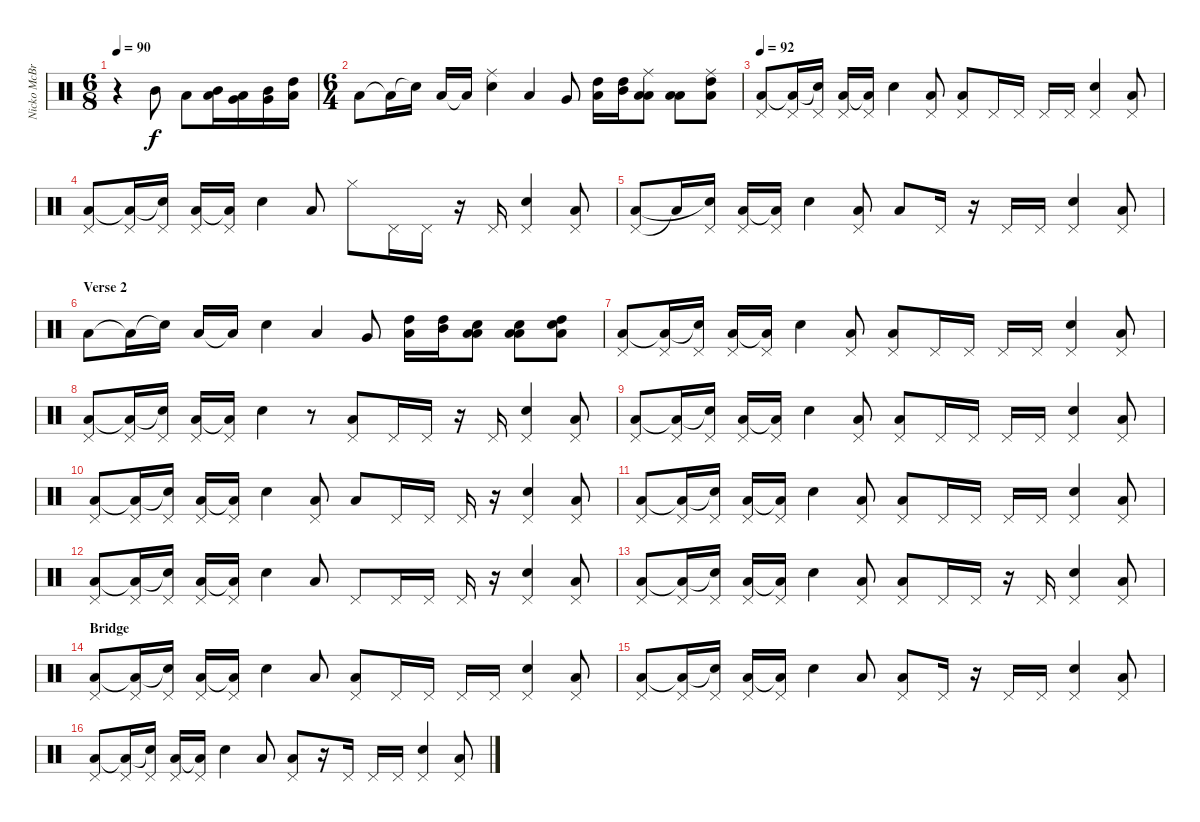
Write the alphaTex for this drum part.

\track ("Nicko McBrain" "Nicko McBr") {instrument percussion}
\staff {score}
\articulation defaults
\ts (6 8)
\tempo 90
\clef neutral
\ks c
r.4{dy f} "Mid Tom (hit)".8 "Low Tom (hit)".8 ("Mid Tom (hit)" "Low Tom (hit)").16 ("Low Tom (hit)" "Very Low Tom (hit)").16 ("Very Low Tom (hit)" "Mid Tom (hit)").16 ("High Tom (hit)" "Low Floor Tom (hit)").16 |
\ts (6 4)
"Low Floor Tom (hit)".8 "Low Floor Tom (hit)"{t}.16 "Electric Snare (hit)"{t}.16 "Low Floor Tom (hit)".16 "Low Floor Tom (hit)"{t}.16 ("Ride (middle)" "Electric Snare (hit)").4 "Low Floor Tom (hit)".4 "Very Low Tom (hit)".8 ("High Tom (hit)" "Low Floor Tom (hit)").16 ("High Tom (hit)" "Mid Tom (hit)").16 ("Low Tom (hit)" "Low Tom (hit)" "Ride (middle)").8 ("Low Floor Tom (hit)" "Low Tom (hit)").8 ("High Tom (hit)" "Low Tom (hit)" "Ride (middle)").8 |
\tempo 92
("Pedal Hi-Hat (hit)" "Low Floor Tom (hit)").8 ("Pedal Hi-Hat (hit)" "Low Floor Tom (hit)"{t}).16 ("Pedal Hi-Hat (hit)" "Electric Snare (hit)"{t}).16 ("Pedal Hi-Hat (hit)" "Low Floor Tom (hit)").16 ("Pedal Hi-Hat (hit)" "Low Floor Tom (hit)"{t}).16 "Electric Snare (hit)".4 ("Pedal Hi-Hat (hit)" "Low Floor Tom (hit)").8 ("Pedal Hi-Hat (hit)" "Low Floor Tom (hit)").8 "Pedal Hi-Hat (hit)".16 "Pedal Hi-Hat (hit)".16 "Pedal Hi-Hat (hit)".16 "Pedal Hi-Hat (hit)".16 ("Pedal Hi-Hat (hit)" "Electric Snare (hit)").4 ("Pedal Hi-Hat (hit)" "Low Floor Tom (hit)").8 |
("Pedal Hi-Hat (hit)" "Low Floor Tom (hit)").8 ("Pedal Hi-Hat (hit)" "Low Floor Tom (hit)"{t}).16 ("Pedal Hi-Hat (hit)" "Electric Snare (hit)"{t}).16 ("Pedal Hi-Hat (hit)" "Low Floor Tom (hit)").16 ("Pedal Hi-Hat (hit)" "Low Floor Tom (hit)"{t}).16 "Electric Snare (hit)".4 "Low Floor Tom (hit)".8 "Hi-Hat (closed)".8 "Pedal Hi-Hat (hit)".16 "Pedal Hi-Hat (hit)".16 r.16 "Pedal Hi-Hat (hit)".16 ("Pedal Hi-Hat (hit)" "Electric Snare (hit)").4 ("Pedal Hi-Hat (hit)" "Low Floor Tom (hit)").8 |
("Pedal Hi-Hat (hit)" "Low Floor Tom (hit)").8 "Low Floor Tom (hit)"{t}.16 ("Pedal Hi-Hat (hit)" "Electric Snare (hit)"{t}).16 ("Pedal Hi-Hat (hit)" "Low Floor Tom (hit)").16 ("Pedal Hi-Hat (hit)" "Low Floor Tom (hit)"{t}).16 "Electric Snare (hit)".4 ("Pedal Hi-Hat (hit)" "Low Floor Tom (hit)").8 "Low Floor Tom (hit)".8 "Pedal Hi-Hat (hit)".16 r.16 "Pedal Hi-Hat (hit)".16 "Pedal Hi-Hat (hit)".16 ("Pedal Hi-Hat (hit)" "Electric Snare (hit)").4 ("Pedal Hi-Hat (hit)" "Low Floor Tom (hit)").8 |
\section ("" "Verse 2")
"Low Floor Tom (hit)".8 "Low Floor Tom (hit)"{t}.16 "Electric Snare (hit)"{t}.16 "Low Floor Tom (hit)".16 "Low Floor Tom (hit)"{t}.16 "Electric Snare (hit)".4 "Low Floor Tom (hit)".4 "Very Low Tom (hit)".8 ("High Tom (hit)" "Low Floor Tom (hit)").16 ("High Tom (hit)" "Mid Tom (hit)").16 ("Low Tom (hit)" "Low Tom (hit)" "Electric Snare (hit)").8 ("Low Floor Tom (hit)" "Low Tom (hit)" "Electric Snare (hit)").8 ("High Tom (hit)" "Low Tom (hit)" "Electric Snare (hit)").8 |
("Pedal Hi-Hat (hit)" "Low Floor Tom (hit)").8 ("Pedal Hi-Hat (hit)" "Low Floor Tom (hit)"{t}).16 ("Pedal Hi-Hat (hit)" "Electric Snare (hit)"{t}).16 ("Pedal Hi-Hat (hit)" "Low Floor Tom (hit)").16 ("Pedal Hi-Hat (hit)" "Low Floor Tom (hit)"{t}).16 "Electric Snare (hit)".4 ("Pedal Hi-Hat (hit)" "Low Floor Tom (hit)").8 ("Pedal Hi-Hat (hit)" "Low Floor Tom (hit)").8 "Pedal Hi-Hat (hit)".16 "Pedal Hi-Hat (hit)".16 "Pedal Hi-Hat (hit)".16 "Pedal Hi-Hat (hit)".16 ("Pedal Hi-Hat (hit)" "Electric Snare (hit)").4 ("Pedal Hi-Hat (hit)" "Low Floor Tom (hit)").8 |
("Pedal Hi-Hat (hit)" "Low Floor Tom (hit)").8 ("Pedal Hi-Hat (hit)" "Low Floor Tom (hit)"{t}).16 ("Pedal Hi-Hat (hit)" "Electric Snare (hit)"{t}).16 ("Pedal Hi-Hat (hit)" "Low Floor Tom (hit)").16 ("Pedal Hi-Hat (hit)" "Low Floor Tom (hit)"{t}).16 "Electric Snare (hit)".4 r.8 ("Pedal Hi-Hat (hit)" "Low Floor Tom (hit)").8 "Pedal Hi-Hat (hit)".16 "Pedal Hi-Hat (hit)".16 r.16 "Pedal Hi-Hat (hit)".16 ("Pedal Hi-Hat (hit)" "Electric Snare (hit)").4 ("Pedal Hi-Hat (hit)" "Low Floor Tom (hit)").8 |
("Pedal Hi-Hat (hit)" "Low Floor Tom (hit)").8 ("Pedal Hi-Hat (hit)" "Low Floor Tom (hit)"{t}).16 ("Pedal Hi-Hat (hit)" "Electric Snare (hit)"{t}).16 ("Pedal Hi-Hat (hit)" "Low Floor Tom (hit)").16 ("Pedal Hi-Hat (hit)" "Low Floor Tom (hit)"{t}).16 "Electric Snare (hit)".4 ("Pedal Hi-Hat (hit)" "Low Floor Tom (hit)").8 ("Pedal Hi-Hat (hit)" "Low Floor Tom (hit)").8 "Pedal Hi-Hat (hit)".16 "Pedal Hi-Hat (hit)".16 "Pedal Hi-Hat (hit)".16 "Pedal Hi-Hat (hit)".16 ("Pedal Hi-Hat (hit)" "Electric Snare (hit)").4 ("Pedal Hi-Hat (hit)" "Low Floor Tom (hit)").8 |
("Pedal Hi-Hat (hit)" "Low Floor Tom (hit)").8 ("Pedal Hi-Hat (hit)" "Low Floor Tom (hit)"{t}).16 ("Pedal Hi-Hat (hit)" "Electric Snare (hit)"{t}).16 ("Pedal Hi-Hat (hit)" "Low Floor Tom (hit)").16 ("Pedal Hi-Hat (hit)" "Low Floor Tom (hit)"{t}).16 "Electric Snare (hit)".4 ("Pedal Hi-Hat (hit)" "Low Floor Tom (hit)").8 "Low Floor Tom (hit)".8 "Pedal Hi-Hat (hit)".16 "Pedal Hi-Hat (hit)".16 "Pedal Hi-Hat (hit)".16 r.16 ("Pedal Hi-Hat (hit)" "Electric Snare (hit)").4 ("Pedal Hi-Hat (hit)" "Low Floor Tom (hit)").8 |
("Pedal Hi-Hat (hit)" "Low Floor Tom (hit)").8 ("Pedal Hi-Hat (hit)" "Low Floor Tom (hit)"{t}).16 ("Pedal Hi-Hat (hit)" "Electric Snare (hit)"{t}).16 ("Pedal Hi-Hat (hit)" "Low Floor Tom (hit)").16 ("Pedal Hi-Hat (hit)" "Low Floor Tom (hit)"{t}).16 "Electric Snare (hit)".4 ("Pedal Hi-Hat (hit)" "Low Floor Tom (hit)").8 ("Pedal Hi-Hat (hit)" "Low Floor Tom (hit)").8 "Pedal Hi-Hat (hit)".16 "Pedal Hi-Hat (hit)".16 "Pedal Hi-Hat (hit)".16 "Pedal Hi-Hat (hit)".16 ("Pedal Hi-Hat (hit)" "Electric Snare (hit)").4 ("Pedal Hi-Hat (hit)" "Low Floor Tom (hit)").8 |
("Pedal Hi-Hat (hit)" "Low Floor Tom (hit)").8 ("Pedal Hi-Hat (hit)" "Low Floor Tom (hit)"{t}).16 ("Pedal Hi-Hat (hit)" "Electric Snare (hit)"{t}).16 ("Pedal Hi-Hat (hit)" "Low Floor Tom (hit)").16 ("Pedal Hi-Hat (hit)" "Low Floor Tom (hit)"{t}).16 "Electric Snare (hit)".4 "Low Floor Tom (hit)".8 "Pedal Hi-Hat (hit)".8 "Pedal Hi-Hat (hit)".16 "Pedal Hi-Hat (hit)".16 "Pedal Hi-Hat (hit)".16 r.16 ("Pedal Hi-Hat (hit)" "Electric Snare (hit)").4 ("Pedal Hi-Hat (hit)" "Low Floor Tom (hit)").8 |
("Pedal Hi-Hat (hit)" "Low Floor Tom (hit)").8 ("Pedal Hi-Hat (hit)" "Low Floor Tom (hit)"{t}).16 ("Pedal Hi-Hat (hit)" "Electric Snare (hit)"{t}).16 ("Pedal Hi-Hat (hit)" "Low Floor Tom (hit)").16 ("Pedal Hi-Hat (hit)" "Low Floor Tom (hit)"{t}).16 "Electric Snare (hit)".4 ("Pedal Hi-Hat (hit)" "Low Floor Tom (hit)").8 ("Pedal Hi-Hat (hit)" "Low Floor Tom (hit)").8 "Pedal Hi-Hat (hit)".16 "Pedal Hi-Hat (hit)".16 r.16 "Pedal Hi-Hat (hit)".16 ("Pedal Hi-Hat (hit)" "Electric Snare (hit)").4 ("Pedal Hi-Hat (hit)" "Low Floor Tom (hit)").8 |
\section ("" "Bridge")
("Pedal Hi-Hat (hit)" "Low Floor Tom (hit)").8 ("Pedal Hi-Hat (hit)" "Low Floor Tom (hit)"{t}).16 ("Pedal Hi-Hat (hit)" "Electric Snare (hit)"{t}).16 ("Pedal Hi-Hat (hit)" "Low Floor Tom (hit)").16 ("Pedal Hi-Hat (hit)" "Low Floor Tom (hit)"{t}).16 "Electric Snare (hit)".4 "Low Floor Tom (hit)".8 ("Pedal Hi-Hat (hit)" "Low Floor Tom (hit)").8 "Pedal Hi-Hat (hit)".16 "Pedal Hi-Hat (hit)".16 "Pedal Hi-Hat (hit)".16 "Pedal Hi-Hat (hit)".16 ("Pedal Hi-Hat (hit)" "Electric Snare (hit)").4 ("Pedal Hi-Hat (hit)" "Low Floor Tom (hit)").8 |
("Pedal Hi-Hat (hit)" "Low Floor Tom (hit)").8 ("Pedal Hi-Hat (hit)" "Low Floor Tom (hit)"{t}).16 ("Pedal Hi-Hat (hit)" "Electric Snare (hit)"{t}).16 ("Pedal Hi-Hat (hit)" "Low Floor Tom (hit)").16 ("Pedal Hi-Hat (hit)" "Low Floor Tom (hit)"{t}).16 "Electric Snare (hit)".4 "Low Floor Tom (hit)".8 ("Pedal Hi-Hat (hit)" "Low Floor Tom (hit)").8 "Pedal Hi-Hat (hit)".16 r.16 "Pedal Hi-Hat (hit)".16 "Pedal Hi-Hat (hit)".16 ("Pedal Hi-Hat (hit)" "Electric Snare (hit)").4 ("Pedal Hi-Hat (hit)" "Low Floor Tom (hit)").8 |
("Pedal Hi-Hat (hit)" "Low Floor Tom (hit)").8 ("Pedal Hi-Hat (hit)" "Low Floor Tom (hit)"{t}).16 ("Pedal Hi-Hat (hit)" "Electric Snare (hit)"{t}).16 ("Pedal Hi-Hat (hit)" "Low Floor Tom (hit)").16 ("Pedal Hi-Hat (hit)" "Low Floor Tom (hit)"{t}).16 "Electric Snare (hit)".4 "Low Floor Tom (hit)".8 ("Pedal Hi-Hat (hit)" "Low Floor Tom (hit)").8 r.16 "Pedal Hi-Hat (hit)".16 "Pedal Hi-Hat (hit)".16 "Pedal Hi-Hat (hit)".16 ("Pedal Hi-Hat (hit)" "Electric Snare (hit)").4 ("Pedal Hi-Hat (hit)" "Low Floor Tom (hit)").8
